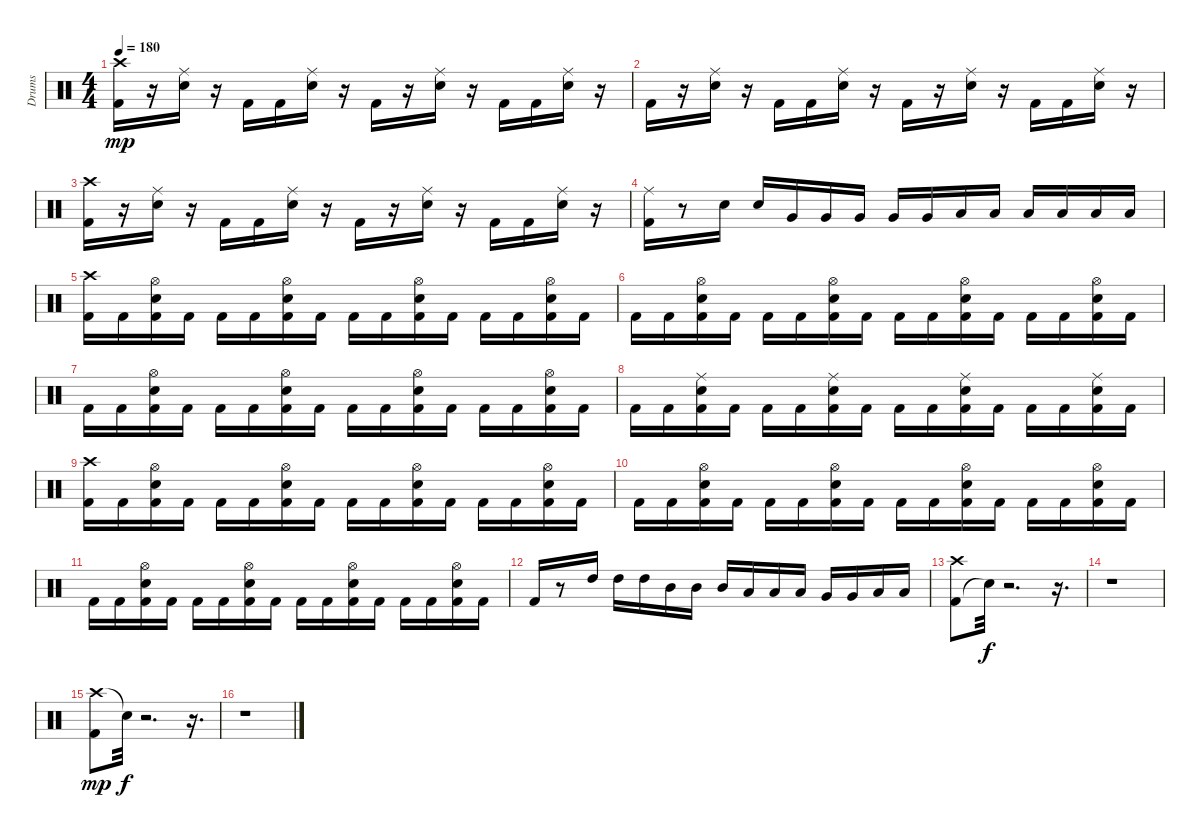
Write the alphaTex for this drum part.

\track ("Drums" "Drums") {instrument percussion}
\staff {score}
\articulation defaults
\ts (4 4)
\tempo 180
\clef neutral
\ks c
("Kick (hit) 2" "Crash high (hit)").16{dy mp} r.16 ("Electric Snare (hit)" "Ride (middle)").16 r.16 "Kick (hit) 2".16 "Kick (hit) 2".16 ("Ride (middle)" "Electric Snare (hit)").16 r.16 "Kick (hit) 2".16 r.16 ("Electric Snare (hit)" "Ride (middle)").16 r.16 "Kick (hit) 2".16 "Kick (hit) 2".16 ("Ride (middle)" "Electric Snare (hit)").16 r.16 |
"Kick (hit) 2".16 r.16 ("Electric Snare (hit)" "Ride (middle)").16 r.16 "Kick (hit) 2".16 "Kick (hit) 2".16 ("Ride (middle)" "Electric Snare (hit)").16 r.16 "Kick (hit) 2".16 r.16 ("Electric Snare (hit)" "Ride (middle)").16 r.16 "Kick (hit) 2".16 "Kick (hit) 2".16 ("Ride (middle)" "Electric Snare (hit)").16 r.16 |
("Crash high (hit)" "Kick (hit) 2").16 r.16 ("Electric Snare (hit)" "Ride (middle)").16 r.16 "Kick (hit) 2".16 "Kick (hit) 2".16 ("Ride (middle)" "Electric Snare (hit)").16 r.16 "Kick (hit) 2".16 r.16 ("Electric Snare (hit)" "Ride (middle)").16 r.16 "Kick (hit) 2".16 "Kick (hit) 2".16 ("Electric Snare (hit)" "Ride (middle)").16 r.16 |
("Ride (middle)" "Kick (hit) 2").16 r.8 "Electric Snare (hit)".16 "Electric Snare (hit)".16 "Very Low Tom (hit)".16 "Very Low Tom (hit)".16 "Very Low Tom (hit)".16 "Very Low Tom (hit)".16 "Very Low Tom (hit)".16 "Low Floor Tom (hit)".16 "Low Floor Tom (hit)".16 "Low Floor Tom (hit)".16 "Low Floor Tom (hit)".16 "Low Floor Tom (hit)".16 "Low Floor Tom (hit)".16 |
("Crash high (hit)" "Kick (hit) 2").16 "Kick (hit) 2".16 ("Electric Snare (hit)" "Hi-Hat (open)" "Kick (hit) 2").16 "Kick (hit) 2".16 "Kick (hit) 2".16 "Kick (hit) 2".16 ("Hi-Hat (open)" "Kick (hit) 2" "Electric Snare (hit)").16 "Kick (hit) 2".16 "Kick (hit) 2".16 "Kick (hit) 2".16 ("Electric Snare (hit)" "Hi-Hat (open)" "Kick (hit) 2").16 "Kick (hit) 2".16 "Kick (hit) 2".16 "Kick (hit) 2".16 ("Electric Snare (hit)" "Kick (hit) 2" "Hi-Hat (open)").16 "Kick (hit) 2".16 |
"Kick (hit) 2".16 "Kick (hit) 2".16 ("Hi-Hat (open)" "Electric Snare (hit)" "Kick (hit) 2").16 "Kick (hit) 2".16 "Kick (hit) 2".16 "Kick (hit) 2".16 ("Hi-Hat (open)" "Electric Snare (hit)" "Kick (hit) 2").16 "Kick (hit) 2".16 "Kick (hit) 2".16 "Kick (hit) 2".16 ("Electric Snare (hit)" "Hi-Hat (open)" "Kick (hit) 2").16 "Kick (hit) 2".16 "Kick (hit) 2".16 "Kick (hit) 2".16 ("Kick (hit) 2" "Hi-Hat (open)" "Electric Snare (hit)").16 "Kick (hit) 2".16 |
"Kick (hit) 2".16 "Kick (hit) 2".16 ("Hi-Hat (open)" "Electric Snare (hit)" "Kick (hit) 2").16 "Kick (hit) 2".16 "Kick (hit) 2".16 "Kick (hit) 2".16 ("Hi-Hat (open)" "Electric Snare (hit)" "Kick (hit) 2").16 "Kick (hit) 2".16 "Kick (hit) 2".16 "Kick (hit) 2".16 ("Electric Snare (hit)" "Kick (hit) 2" "Hi-Hat (open)").16 "Kick (hit) 2".16 "Kick (hit) 2".16 "Kick (hit) 2".16 ("Electric Snare (hit)" "Hi-Hat (open)" "Kick (hit) 2").16 "Kick (hit) 2".16 |
"Kick (hit) 2".16 "Kick (hit) 2".16 ("Ride (middle)" "Kick (hit) 2" "Electric Snare (hit)").16 "Kick (hit) 2".16 "Kick (hit) 2".16 "Kick (hit) 2".16 ("Electric Snare (hit)" "Kick (hit) 2" "Ride (middle)").16 "Kick (hit) 2".16 "Kick (hit) 2".16 "Kick (hit) 2".16 ("Ride (middle)" "Kick (hit) 2" "Electric Snare (hit)").16 "Kick (hit) 2".16 "Kick (hit) 2".16 "Kick (hit) 2".16 ("Kick (hit) 2" "Electric Snare (hit)" "Ride (middle)").16 "Kick (hit) 2".16 |
("Kick (hit) 2" "Crash high (hit)").16 "Kick (hit) 2".16 ("Electric Snare (hit)" "Kick (hit) 2" "Hi-Hat (open)").16 "Kick (hit) 2".16 "Kick (hit) 2".16 "Kick (hit) 2".16 ("Hi-Hat (open)" "Electric Snare (hit)" "Kick (hit) 2").16 "Kick (hit) 2".16 "Kick (hit) 2".16 "Kick (hit) 2".16 ("Kick (hit) 2" "Hi-Hat (open)" "Electric Snare (hit)").16 "Kick (hit) 2".16 "Kick (hit) 2".16 "Kick (hit) 2".16 ("Hi-Hat (open)" "Electric Snare (hit)" "Kick (hit) 2").16 "Kick (hit) 2".16 |
"Kick (hit) 2".16 "Kick (hit) 2".16 ("Electric Snare (hit)" "Hi-Hat (open)" "Kick (hit) 2").16 "Kick (hit) 2".16 "Kick (hit) 2".16 "Kick (hit) 2".16 ("Electric Snare (hit)" "Kick (hit) 2" "Hi-Hat (open)").16 "Kick (hit) 2".16 "Kick (hit) 2".16 "Kick (hit) 2".16 ("Kick (hit) 2" "Hi-Hat (open)" "Electric Snare (hit)").16 "Kick (hit) 2".16 "Kick (hit) 2".16 "Kick (hit) 2".16 ("Electric Snare (hit)" "Hi-Hat (open)" "Kick (hit) 2").16 "Kick (hit) 2".16 |
"Kick (hit) 2".16 "Kick (hit) 2".16 ("Kick (hit) 2" "Electric Snare (hit)" "Hi-Hat (open)").16 "Kick (hit) 2".16 "Kick (hit) 2".16 "Kick (hit) 2".16 ("Kick (hit) 2" "Electric Snare (hit)" "Hi-Hat (open)").16 "Kick (hit) 2".16 "Kick (hit) 2".16 "Kick (hit) 2".16 ("Electric Snare (hit)" "Kick (hit) 2" "Hi-Hat (open)").16 "Kick (hit) 2".16 "Kick (hit) 2".16 "Kick (hit) 2".16 ("Hi-Hat (open)" "Kick (hit) 2" "Electric Snare (hit)").16 "Kick (hit) 2".16 |
"Kick (hit) 2".16 r.8 "High Tom (hit)".16 "High Tom (hit)".16 "High Tom (hit)".16 "Mid Tom (hit)".16 "Mid Tom (hit)".16 "Mid Tom (hit)".16 "Low Tom (hit)".16 "Low Tom (hit)".16 "Low Tom (hit)".16 "Very Low Tom (hit)".16 "Very Low Tom (hit)".16 "Low Floor Tom (hit)".16 "Low Floor Tom (hit)".16 |
("Kick (hit) 2" "Crash high (hit)").8 "Snare (hit)"{t}.32{dy f} r.2{d} r.16{d} |
r.1 |
("Crash high (hit)" "Kick (hit) 2").8{dy mp} "Snare (hit)"{t}.32{dy f} r.2{d} r.16{d} |
r.1
